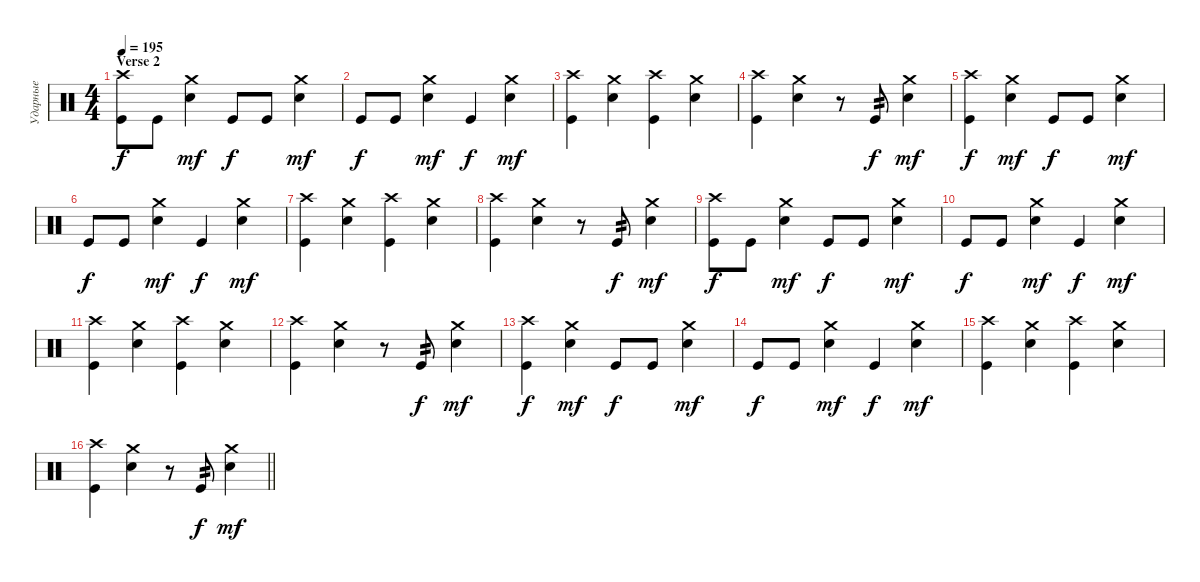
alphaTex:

\track ("Ударные" "Ударные") {instrument percussion}
\staff {score}
\articulation defaults
\ts (4 4)
\section ("" "Verse 2")
\tempo 195
\clef neutral
\ks c
("Kick (hit)" "Crash high (hit)").8{dy f} "Kick (hit)".8 ("Snare (hit) 2" "Crash medium (hit)").4{dy mf} "Kick (hit)".8{dy f} "Kick (hit)".8 ("Snare (hit) 2" "Crash medium (hit)").4{dy mf} |
"Kick (hit)".8{dy f} "Kick (hit)".8 ("Snare (hit) 2" "Crash medium (hit)").4{dy mf} "Kick (hit)".4{dy f} ("Snare (hit) 2" "Crash medium (hit)").4{dy mf} |
("Kick (hit)" "Crash high (hit)").4 ("Snare (hit) 2" "Crash medium (hit)").4 ("Kick (hit)" "Crash high (hit)").4 ("Snare (hit) 2" "Crash medium (hit)").4 |
("Kick (hit)" "Crash high (hit)").4 ("Snare (hit) 2" "Crash medium (hit)").4 r.8 "Kick (hit)".8{tp 2 dy f} ("Snare (hit) 2" "Crash medium (hit)").4{dy mf} |
("Kick (hit)" "Crash high (hit)").4{dy f} ("Snare (hit) 2" "Crash medium (hit)").4{dy mf} "Kick (hit)".8{dy f} "Kick (hit)".8 ("Snare (hit) 2" "Crash medium (hit)").4{dy mf} |
"Kick (hit)".8{dy f} "Kick (hit)".8 ("Snare (hit) 2" "Crash medium (hit)").4{dy mf} "Kick (hit)".4{dy f} ("Snare (hit) 2" "Crash medium (hit)").4{dy mf} |
("Kick (hit)" "Crash high (hit)").4 ("Snare (hit) 2" "Crash medium (hit)").4 ("Kick (hit)" "Crash high (hit)").4 ("Snare (hit) 2" "Crash medium (hit)").4 |
("Kick (hit)" "Crash high (hit)").4 ("Snare (hit) 2" "Crash medium (hit)").4 r.8 "Kick (hit)".8{tp 2 dy f} ("Snare (hit) 2" "Crash medium (hit)").4{dy mf} |
("Kick (hit)" "Crash high (hit)").8{dy f} "Kick (hit)".8 ("Snare (hit) 2" "Crash medium (hit)").4{dy mf} "Kick (hit)".8{dy f} "Kick (hit)".8 ("Snare (hit) 2" "Crash medium (hit)").4{dy mf} |
"Kick (hit)".8{dy f} "Kick (hit)".8 ("Snare (hit) 2" "Crash medium (hit)").4{dy mf} "Kick (hit)".4{dy f} ("Snare (hit) 2" "Crash medium (hit)").4{dy mf} |
("Kick (hit)" "Crash high (hit)").4 ("Snare (hit) 2" "Crash medium (hit)").4 ("Kick (hit)" "Crash high (hit)").4 ("Snare (hit) 2" "Crash medium (hit)").4 |
("Kick (hit)" "Crash high (hit)").4 ("Snare (hit) 2" "Crash medium (hit)").4 r.8 "Kick (hit)".8{tp 2 dy f} ("Snare (hit) 2" "Crash medium (hit)").4{dy mf} |
("Kick (hit)" "Crash high (hit)").4{dy f} ("Snare (hit) 2" "Crash medium (hit)").4{dy mf} "Kick (hit)".8{dy f} "Kick (hit)".8 ("Snare (hit) 2" "Crash medium (hit)").4{dy mf} |
"Kick (hit)".8{dy f} "Kick (hit)".8 ("Snare (hit) 2" "Crash medium (hit)").4{dy mf} "Kick (hit)".4{dy f} ("Snare (hit) 2" "Crash medium (hit)").4{dy mf} |
("Kick (hit)" "Crash high (hit)").4 ("Snare (hit) 2" "Crash medium (hit)").4 ("Kick (hit)" "Crash high (hit)").4 ("Snare (hit) 2" "Crash medium (hit)").4 |
\barLineRight lightlight
("Kick (hit)" "Crash high (hit)").4 ("Snare (hit) 2" "Crash medium (hit)").4 r.8 "Kick (hit)".8{tp 2 dy f} ("Snare (hit) 2" "Crash medium (hit)").4{dy mf}
